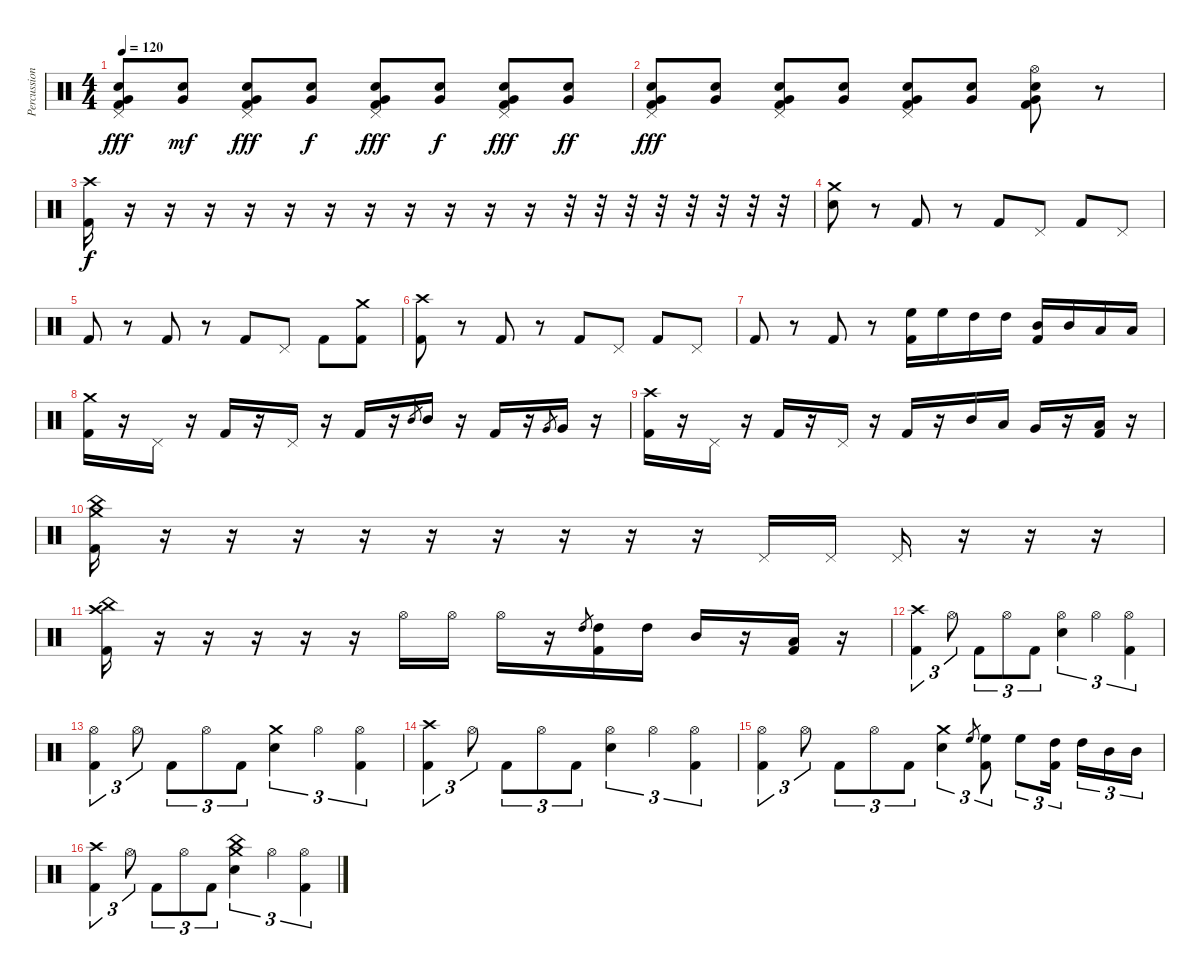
\track ("Percussion" "Percussion") {instrument percussion}
\staff {score}
\articulation defaults
\ts (4 4)
\tempo 120
\clef neutral
\ks c
("Snare (hit) 2" "Very Low Tom (hit)" "Kick (hit) 2" "Pedal Hi-Hat (hit)").8{dy fff} ("Snare (hit) 2" "Very Low Tom (hit)").8{dy mf} ("Snare (hit) 2" "Very Low Tom (hit)" "Kick (hit) 2" "Pedal Hi-Hat (hit)").8{dy fff} ("Snare (hit) 2" "Very Low Tom (hit)").8{dy f} ("Snare (hit) 2" "Very Low Tom (hit)" "Kick (hit) 2" "Pedal Hi-Hat (hit)").8{dy fff} ("Snare (hit) 2" "Very Low Tom (hit)").8{dy f} ("Snare (hit) 2" "Very Low Tom (hit)" "Kick (hit) 2" "Pedal Hi-Hat (hit)").8{dy fff} ("Snare (hit) 2" "Very Low Tom (hit)").8{dy ff} |
("Snare (hit) 2" "Very Low Tom (hit)" "Kick (hit) 2" "Pedal Hi-Hat (hit)").8{dy fff} ("Snare (hit) 2" "Very Low Tom (hit)").8 ("Snare (hit) 2" "Very Low Tom (hit)" "Kick (hit) 2" "Pedal Hi-Hat (hit)").8 ("Snare (hit) 2" "Very Low Tom (hit)").8 ("Snare (hit) 2" "Very Low Tom (hit)" "Kick (hit) 2" "Pedal Hi-Hat (hit)").8 ("Snare (hit) 2" "Very Low Tom (hit)").8 ("Snare (hit) 2" "Very Low Tom (hit)" "Kick (hit) 2" "Hi-Hat (open)").8 r.8 |
("Crash high (hit)" "Kick (hit) 2").16{dy f} r.16 r.16 r.16 r.16 r.16 r.16 r.16 r.16 r.16 r.16 r.16 r.32 r.32 r.32 r.32 r.32 r.32 r.32 r.32 |
("Crash medium (hit)" "Snare (hit) 2").8 r.8 "Kick (hit) 2".8 r.8 "Kick (hit) 2".8 "Pedal Hi-Hat (hit)".8 "Kick (hit) 2".8 "Pedal Hi-Hat (hit)".8 |
"Kick (hit) 2".8 r.8 "Kick (hit) 2".8 r.8 "Kick (hit) 2".8 "Pedal Hi-Hat (hit)".8 "Kick (hit) 2".8 ("Crash medium (hit)" "Kick (hit) 2").8 |
("Crash high (hit)" "Kick (hit) 2").8 r.8 "Kick (hit) 2".8 r.8 "Kick (hit) 2".8 "Pedal Hi-Hat (hit)".8 "Kick (hit) 2".8 "Pedal Hi-Hat (hit)".8 |
"Kick (hit) 2".8 r.8 "Kick (hit) 2".8 r.8 ("High Floor Tom (hit)" "Kick (hit) 2").16 "High Floor Tom (hit)".16 "High Tom (hit)".16 "High Tom (hit)".16 ("Mid Tom (hit)" "Kick (hit) 2").16 "Mid Tom (hit)".16 "Low Tom (hit)".16 "Low Tom (hit)".16 |
("Crash medium (hit)" "Kick (hit) 2").16 r.16 "Pedal Hi-Hat (hit)".16 r.16 "Kick (hit) 2".16 r.16 "Pedal Hi-Hat (hit)".16 r.16 "Kick (hit) 2".16 r.16 "Mid Tom (hit)".8{gr} "Mid Tom (hit)".16 r.16 "Kick (hit) 2".16 r.16 "Very Low Tom (hit)".8{gr} "Very Low Tom (hit)".16 r.16 |
("Crash high (hit)" "Kick (hit) 2").16 r.16 "Pedal Hi-Hat (hit)".16 r.16 "Kick (hit) 2".16 r.16 "Pedal Hi-Hat (hit)".16 r.16 "Kick (hit) 2".16 r.16 "Mid Tom (hit)".16 "Low Tom (hit)".16 "Very Low Tom (hit)".16 r.16 ("Low Floor Tom (hit)" "Kick (hit) 2").16 r.16 |
("Crash medium (hit)" "China (hit)" "Kick (hit) 2").16 r.16 r.16 r.16 r.16 r.16 r.16 r.16 r.16 r.16 "Pedal Hi-Hat (hit)".16 "Pedal Hi-Hat (hit)".16 "Pedal Hi-Hat (hit)".16 r.16 r.16 r.16 |
("Crash high (hit)" "China (hit)" "Kick (hit) 2").16 r.16 r.16 r.16 r.16 r.16 "Hi-Hat (open)".16 "Hi-Hat (open)".16 "Hi-Hat (open)".16 r.16 "High Tom (hit)".8{gr} ("High Tom (hit)" "Kick (hit) 2").16 "High Tom (hit)".16 "Mid Tom (hit)".16 r.16 ("Low Tom (hit)" "Kick (hit) 2").16 r.16 |
("Kick (hit) 2" "Crash high (hit)").4{tu (3 2)} "Hi-Hat (open)".8{tu (3 2)} "Kick (hit) 2".8{tu (3 2)} "Hi-Hat (open)".8{tu (3 2)} "Kick (hit) 2".8{tu (3 2)} ("Snare (hit) 2" "Hi-Hat (open)").4{tu (3 2)} "Hi-Hat (open)".4{tu (3 2)} ("Kick (hit) 2" "Hi-Hat (open)").4{tu (3 2)} |
("Kick (hit) 2" "Hi-Hat (open)").4{tu (3 2)} "Hi-Hat (open)".8{tu (3 2)} "Kick (hit) 2".8{tu (3 2)} "Hi-Hat (open)".8{tu (3 2)} "Kick (hit) 2".8{tu (3 2)} ("Snare (hit) 2" "Crash medium (hit)").4{tu (3 2)} "Hi-Hat (open)".4{tu (3 2)} ("Kick (hit) 2" "Hi-Hat (open)").4{tu (3 2)} |
("Kick (hit) 2" "Crash high (hit)").4{tu (3 2)} "Hi-Hat (open)".8{tu (3 2)} "Kick (hit) 2".8{tu (3 2)} "Hi-Hat (open)".8{tu (3 2)} "Kick (hit) 2".8{tu (3 2)} ("Snare (hit) 2" "Hi-Hat (open)").4{tu (3 2)} "Hi-Hat (open)".4{tu (3 2)} ("Kick (hit) 2" "Hi-Hat (open)").4{tu (3 2)} |
("Kick (hit) 2" "Hi-Hat (open)").4{tu (3 2)} "Hi-Hat (open)".8{tu (3 2)} "Kick (hit) 2".8{tu (3 2)} "Hi-Hat (open)".8{tu (3 2)} "Kick (hit) 2".8{tu (3 2)} ("Snare (hit) 2" "Crash medium (hit)").4{tu (3 2)} "High Floor Tom (hit)".8{gr} ("High Floor Tom (hit)" "Kick (hit) 2").8{tu (3 2)} "High Floor Tom (hit)".8{tu (3 2)} ("High Tom (hit)" "Kick (hit) 2").16{tu (3 2) beam splitsecondary} "High Tom (hit)".16{tu (3 2)} "Mid Tom (hit)".16{tu (3 2)} "Mid Tom (hit)".16{tu (3 2)} |
("Kick (hit) 2" "Crash high (hit)").4{tu (3 2)} "Hi-Hat (open)".8{tu (3 2)} "Kick (hit) 2".8{tu (3 2)} "Hi-Hat (open)".8{tu (3 2)} "Kick (hit) 2".8{tu (3 2)} ("Snare (hit) 2" "Crash medium (hit)" "China (hit)").4{tu (3 2)} "Hi-Hat (open)".4{tu (3 2)} ("Kick (hit) 2" "Hi-Hat (open)").4{tu (3 2)}
